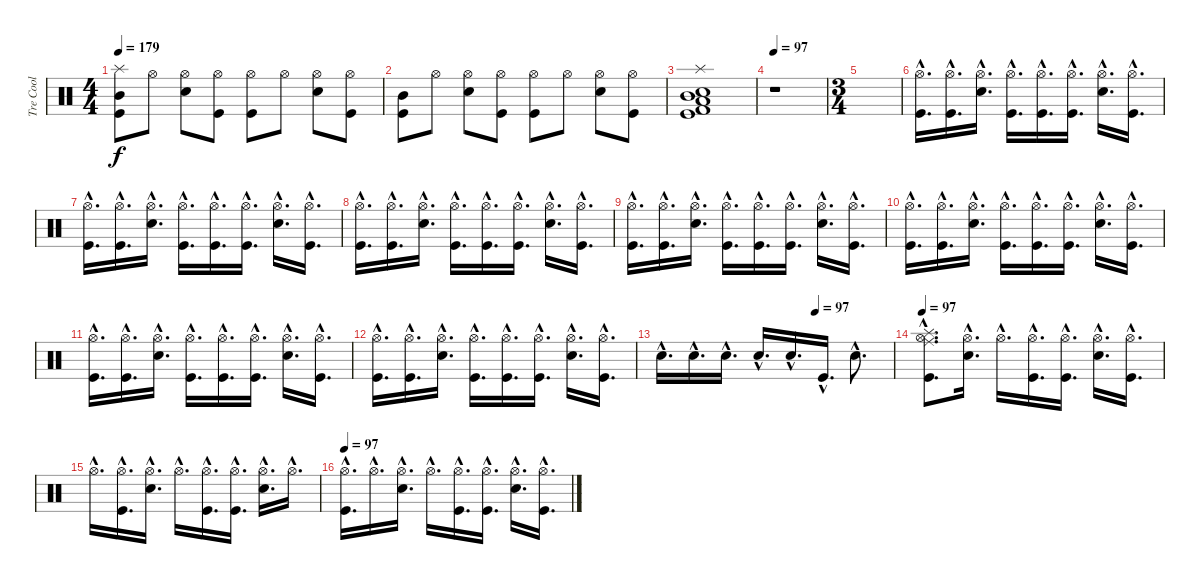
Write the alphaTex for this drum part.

\track ("Tre Cool" "Tre Cool") {instrument percussion}
\staff {score}
\articulation defaults
\ts (4 4)
\tempo 179
\clef neutral
\ks c
("Splash (hit)" "Mid Tom (hit)" "Kick (hit)").8{dy f} "Hi-Hat (open)".8 ("Hi-Hat (open)" "Snare (hit) 2").8 ("Hi-Hat (open)" "Kick (hit)").8 ("Hi-Hat (open)" "Kick (hit)").8 "Hi-Hat (open)".8 ("Hi-Hat (open)" "Snare (hit) 2").8 ("Hi-Hat (open)" "Kick (hit)").8 |
("Mid Tom (hit)" "Kick (hit)").8 "Hi-Hat (open)".8 ("Hi-Hat (open)" "Snare (hit) 2").8 ("Hi-Hat (open)" "Kick (hit)").8 ("Hi-Hat (open)" "Kick (hit)").8 "Hi-Hat (open)".8 ("Hi-Hat (open)" "Snare (hit) 2").8 ("Hi-Hat (open)" "Kick (hit)").8 |
("Snare (hit) 2" "Low Tom (hit)" "Splash (hit)" "Mid Tom (hit)" "Kick (hit)" "Kick (hit) 2").1 |
\tempo 97
r.1 |
\ts (3 4)
|
("Kick (hit)"{hac} "Hi-Hat (open)"{hac}).16{d} ("Kick (hit)"{hac} "Hi-Hat (open)"{hac}).16{d} ("Snare (hit) 2"{hac} "Hi-Hat (open)"{hac}).16{d} ("Kick (hit)"{hac} "Hi-Hat (open)"{hac}).16{d} ("Kick (hit)"{hac} "Hi-Hat (open)"{hac}).16{d} ("Kick (hit)"{hac} "Hi-Hat (open)"{hac}).16{d} ("Snare (hit) 2"{hac} "Hi-Hat (open)"{hac}).16{d} ("Kick (hit)"{hac} "Hi-Hat (open)"{hac}).16{d} |
("Kick (hit)"{hac} "Hi-Hat (open)"{hac}).16{d} ("Kick (hit)"{hac} "Hi-Hat (open)"{hac}).16{d} ("Snare (hit) 2"{hac} "Hi-Hat (open)"{hac}).16{d} ("Kick (hit)"{hac} "Hi-Hat (open)"{hac}).16{d} ("Kick (hit)"{hac} "Hi-Hat (open)"{hac}).16{d} ("Kick (hit)"{hac} "Hi-Hat (open)"{hac}).16{d} ("Snare (hit) 2"{hac} "Hi-Hat (open)"{hac}).16{d} ("Kick (hit)"{hac} "Hi-Hat (open)"{hac}).16{d} |
("Kick (hit)"{hac} "Hi-Hat (open)"{hac}).16{d} ("Kick (hit)"{hac} "Hi-Hat (open)"{hac}).16{d} ("Snare (hit) 2"{hac} "Hi-Hat (open)"{hac}).16{d} ("Kick (hit)"{hac} "Hi-Hat (open)"{hac}).16{d} ("Kick (hit)"{hac} "Hi-Hat (open)"{hac}).16{d} ("Kick (hit)"{hac} "Hi-Hat (open)"{hac}).16{d} ("Snare (hit) 2"{hac} "Hi-Hat (open)"{hac}).16{d} ("Kick (hit)"{hac} "Hi-Hat (open)"{hac}).16{d} |
("Kick (hit)"{hac} "Hi-Hat (open)"{hac}).16{d} ("Kick (hit)"{hac} "Hi-Hat (open)"{hac}).16{d} ("Snare (hit) 2"{hac} "Hi-Hat (open)"{hac}).16{d} ("Kick (hit)"{hac} "Hi-Hat (open)"{hac}).16{d} ("Kick (hit)"{hac} "Hi-Hat (open)"{hac}).16{d} ("Kick (hit)"{hac} "Hi-Hat (open)"{hac}).16{d} ("Snare (hit) 2"{hac} "Hi-Hat (open)"{hac}).16{d} ("Kick (hit)"{hac} "Hi-Hat (open)"{hac}).16{d} |
("Kick (hit)"{hac} "Hi-Hat (open)"{hac}).16{d} ("Kick (hit)"{hac} "Hi-Hat (open)"{hac}).16{d} ("Snare (hit) 2"{hac} "Hi-Hat (open)"{hac}).16{d} ("Kick (hit)"{hac} "Hi-Hat (open)"{hac}).16{d} ("Kick (hit)"{hac} "Hi-Hat (open)"{hac}).16{d} ("Kick (hit)"{hac} "Hi-Hat (open)"{hac}).16{d} ("Snare (hit) 2"{hac} "Hi-Hat (open)"{hac}).16{d} ("Kick (hit)"{hac} "Hi-Hat (open)"{hac}).16{d} |
("Kick (hit)"{hac} "Hi-Hat (open)"{hac}).16{d} ("Kick (hit)"{hac} "Hi-Hat (open)"{hac}).16{d} ("Snare (hit) 2"{hac} "Hi-Hat (open)"{hac}).16{d} ("Kick (hit)"{hac} "Hi-Hat (open)"{hac}).16{d} ("Kick (hit)"{hac} "Hi-Hat (open)"{hac}).16{d} ("Kick (hit)"{hac} "Hi-Hat (open)"{hac}).16{d} ("Snare (hit) 2"{hac} "Hi-Hat (open)"{hac}).16{d} ("Kick (hit)"{hac} "Hi-Hat (open)"{hac}).16{d} |
("Kick (hit)"{hac} "Hi-Hat (open)"{hac}).16{d} ("Kick (hit)"{hac} "Hi-Hat (open)"{hac}).16{d} ("Snare (hit) 2"{hac} "Hi-Hat (open)"{hac}).16{d} ("Kick (hit)"{hac} "Hi-Hat (open)"{hac}).16{d} ("Kick (hit)"{hac} "Hi-Hat (open)"{hac}).16{d} ("Kick (hit)"{hac} "Hi-Hat (open)"{hac}).16{d} ("Snare (hit) 2"{hac} "Hi-Hat (open)"{hac}).16{d} ("Kick (hit)"{hac} "Hi-Hat (open)"{hac}).16{d} |
\tempo (97 0.6666666666666666)
"Snare (hit) 2"{hac}.16{d} "Snare (hit) 2"{hac}.16{d} "Snare (hit) 2"{hac}.16{d} "Snare (hit) 2"{hac}.16{d} "Snare (hit) 2"{hac}.16{d} "Kick (hit)"{hac}.16{d} "Snare (hit) 2"{hac}.8{d} |
\tempo 97
("Kick (hit)"{hac} "Hi-Hat (open)"{hac} "Ride (middle)"{hac} "Splash (hit)"{hac}).8{d} ("Snare (hit) 2"{hac} "Hi-Hat (open)"{hac}).16{d} "Hi-Hat (open)"{hac}.16{d} ("Kick (hit)"{hac} "Hi-Hat (open)"{hac}).16{d} ("Kick (hit)"{hac} "Hi-Hat (open)"{hac}).16{d} ("Snare (hit) 2"{hac} "Hi-Hat (open)"{hac}).16{d} ("Kick (hit)"{hac} "Hi-Hat (open)"{hac}).16{d} |
"Hi-Hat (open)"{hac}.16{d} ("Kick (hit)"{hac} "Hi-Hat (open)"{hac}).16{d} ("Snare (hit) 2"{hac} "Hi-Hat (open)"{hac}).16{d} "Hi-Hat (open)"{hac}.16{d} ("Kick (hit)"{hac} "Hi-Hat (open)"{hac}).16{d} ("Kick (hit)"{hac} "Hi-Hat (open)"{hac}).16{d} ("Snare (hit) 2"{hac} "Hi-Hat (open)"{hac}).16{d} "Hi-Hat (open)"{hac}.16{d} |
\tempo 97
("Kick (hit)"{hac} "Hi-Hat (open)"{hac}).16{d} "Hi-Hat (open)"{hac}.16{d} ("Snare (hit) 2"{hac} "Hi-Hat (open)"{hac}).16{d} "Hi-Hat (open)"{hac}.16{d} ("Kick (hit)"{hac} "Hi-Hat (open)"{hac}).16{d} ("Kick (hit)"{hac} "Hi-Hat (open)"{hac}).16{d} ("Snare (hit) 2"{hac} "Hi-Hat (open)"{hac}).16{d} ("Kick (hit)"{hac} "Hi-Hat (open)"{hac}).16{d}
